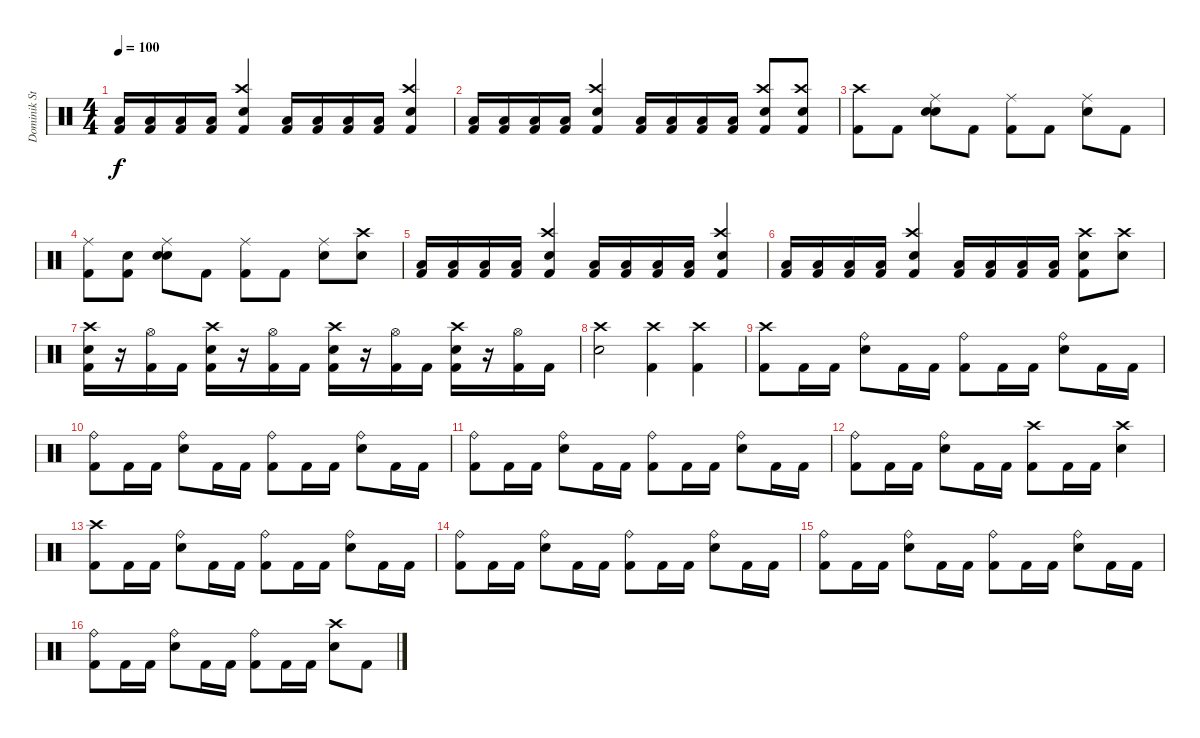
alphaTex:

\track ("Dominik Storch" "Dominik St") {instrument percussion}
\staff {score}
\articulation defaults
\ts (4 4)
\tempo 100
\clef neutral
\ks c
("Low Tom (hit)" "Kick (hit) 2").16{dy f} ("Low Tom (hit)" "Kick (hit) 2").16 ("Low Tom (hit)" "Kick (hit) 2").16 ("Low Tom (hit)" "Kick (hit) 2").16 ("Crash high (hit)" "Snare (hit) 2" "Kick (hit) 2").4 ("Low Tom (hit)" "Kick (hit) 2").16 ("Low Tom (hit)" "Kick (hit) 2").16 ("Low Tom (hit)" "Kick (hit) 2").16 ("Low Tom (hit)" "Kick (hit) 2").16 ("Crash high (hit)" "Snare (hit) 2" "Kick (hit) 2").4 |
("Low Tom (hit)" "Kick (hit) 2").16 ("Low Tom (hit)" "Kick (hit) 2").16 ("Low Tom (hit)" "Kick (hit) 2").16 ("Low Tom (hit)" "Kick (hit) 2").16 ("Crash high (hit)" "Snare (hit) 2" "Kick (hit) 2").4 ("Low Tom (hit)" "Kick (hit) 2").16 ("Low Tom (hit)" "Kick (hit) 2").16 ("Low Tom (hit)" "Kick (hit) 2").16 ("Low Tom (hit)" "Kick (hit) 2").16 ("Crash high (hit)" "Snare (hit) 2" "Kick (hit) 2").8 ("Crash high (hit)" "Snare (hit) 2" "Kick (hit) 2").8 |
("Crash high (hit)" "Kick (hit) 2").8 "Kick (hit) 2".8 ("Ride (middle)" "Snare (hit)" "Snare (hit) 2").8 "Kick (hit) 2".8 ("Ride (middle)" "Kick (hit) 2").8 "Kick (hit) 2".8 ("Ride (middle)" "Snare (hit) 2").8 "Kick (hit) 2".8 |
("Ride (middle)" "Kick (hit) 2").8 ("Snare (hit)" "Kick (hit) 2").8 ("Ride (middle)" "Snare (hit)" "Snare (hit) 2").8 "Kick (hit) 2".8 ("Ride (middle)" "Kick (hit) 2").8 "Kick (hit) 2".8 ("Ride (middle)" "Snare (hit) 2").8 ("Crash high (hit)" "Snare (hit) 2").8 |
("Low Tom (hit)" "Kick (hit) 2").16 ("Low Tom (hit)" "Kick (hit) 2").16 ("Low Tom (hit)" "Kick (hit) 2").16 ("Low Tom (hit)" "Kick (hit) 2").16 ("Crash high (hit)" "Snare (hit) 2" "Kick (hit) 2").4 ("Low Tom (hit)" "Kick (hit) 2").16 ("Low Tom (hit)" "Kick (hit) 2").16 ("Low Tom (hit)" "Kick (hit) 2").16 ("Low Tom (hit)" "Kick (hit) 2").16 ("Crash high (hit)" "Snare (hit) 2" "Kick (hit) 2").4 |
("Low Tom (hit)" "Kick (hit) 2").16 ("Low Tom (hit)" "Kick (hit) 2").16 ("Low Tom (hit)" "Kick (hit) 2").16 ("Low Tom (hit)" "Kick (hit) 2").16 ("Crash high (hit)" "Snare (hit) 2" "Kick (hit) 2").4 ("Low Tom (hit)" "Kick (hit) 2").16 ("Low Tom (hit)" "Kick (hit) 2").16 ("Low Tom (hit)" "Kick (hit) 2").16 ("Low Tom (hit)" "Kick (hit) 2").16 ("Crash high (hit)" "Snare (hit) 2" "Kick (hit) 2").8 ("Crash high (hit)" "Snare (hit) 2").8 |
("Crash high (hit)" "Snare (hit) 2" "Kick (hit) 2").16 r.16 ("Hi-Hat (open)" "Kick (hit) 2").16 "Kick (hit) 2".16 ("Crash high (hit)" "Snare (hit) 2" "Kick (hit) 2").16 r.16 ("Hi-Hat (open)" "Kick (hit) 2").16 "Kick (hit) 2".16 ("Crash high (hit)" "Snare (hit) 2" "Kick (hit) 2").16 r.16 ("Hi-Hat (open)" "Kick (hit) 2").16 "Kick (hit) 2".16 ("Crash high (hit)" "Snare (hit) 2" "Kick (hit) 2").16 r.16 ("Hi-Hat (open)" "Kick (hit) 2").16 "Kick (hit) 2".16 |
("Crash high (hit)" "Snare (hit) 2").2 ("Crash high (hit)" "Kick (hit) 2").4 ("Crash high (hit)" "Kick (hit) 2").4 |
("Crash high (hit)" "Kick (hit) 2").8 "Kick (hit) 2".16 "Kick (hit) 2".16 ("Ride (bell)" "Snare (hit) 2").8 "Kick (hit) 2".16 "Kick (hit) 2".16 ("Ride (bell)" "Kick (hit) 2").8 "Kick (hit) 2".16 "Kick (hit) 2".16 ("Ride (bell)" "Snare (hit) 2").8 "Kick (hit) 2".16 "Kick (hit) 2".16 |
("Ride (bell)" "Kick (hit) 2").8 "Kick (hit) 2".16 "Kick (hit) 2".16 ("Ride (bell)" "Snare (hit) 2").8 "Kick (hit) 2".16 "Kick (hit) 2".16 ("Ride (bell)" "Kick (hit) 2").8 "Kick (hit) 2".16 "Kick (hit) 2".16 ("Ride (bell)" "Snare (hit) 2").8 "Kick (hit) 2".16 "Kick (hit) 2".16 |
("Ride (bell)" "Kick (hit) 2").8 "Kick (hit) 2".16 "Kick (hit) 2".16 ("Ride (bell)" "Snare (hit) 2").8 "Kick (hit) 2".16 "Kick (hit) 2".16 ("Ride (bell)" "Kick (hit) 2").8 "Kick (hit) 2".16 "Kick (hit) 2".16 ("Ride (bell)" "Snare (hit) 2").8 "Kick (hit) 2".16 "Kick (hit) 2".16 |
("Ride (bell)" "Kick (hit) 2").8 "Kick (hit) 2".16 "Kick (hit) 2".16 ("Ride (bell)" "Snare (hit) 2").8 "Kick (hit) 2".16 "Kick (hit) 2".16 ("Crash high (hit)" "Kick (hit) 2").8 "Kick (hit) 2".16 "Kick (hit) 2".16 ("Crash high (hit)" "Snare (hit) 2").4 |
("Crash high (hit)" "Kick (hit) 2").8 "Kick (hit) 2".16 "Kick (hit) 2".16 ("Ride (bell)" "Snare (hit) 2").8 "Kick (hit) 2".16 "Kick (hit) 2".16 ("Ride (bell)" "Kick (hit) 2").8 "Kick (hit) 2".16 "Kick (hit) 2".16 ("Ride (bell)" "Snare (hit) 2").8 "Kick (hit) 2".16 "Kick (hit) 2".16 |
("Ride (bell)" "Kick (hit) 2").8 "Kick (hit) 2".16 "Kick (hit) 2".16 ("Ride (bell)" "Snare (hit) 2").8 "Kick (hit) 2".16 "Kick (hit) 2".16 ("Ride (bell)" "Kick (hit) 2").8 "Kick (hit) 2".16 "Kick (hit) 2".16 ("Ride (bell)" "Snare (hit) 2").8 "Kick (hit) 2".16 "Kick (hit) 2".16 |
("Ride (bell)" "Kick (hit) 2").8 "Kick (hit) 2".16 "Kick (hit) 2".16 ("Ride (bell)" "Snare (hit) 2").8 "Kick (hit) 2".16 "Kick (hit) 2".16 ("Ride (bell)" "Kick (hit) 2").8 "Kick (hit) 2".16 "Kick (hit) 2".16 ("Ride (bell)" "Snare (hit) 2").8 "Kick (hit) 2".16 "Kick (hit) 2".16 |
("Ride (bell)" "Kick (hit) 2").8 "Kick (hit) 2".16 "Kick (hit) 2".16 ("Ride (bell)" "Snare (hit) 2").8 "Kick (hit) 2".16 "Kick (hit) 2".16 ("Ride (bell)" "Kick (hit) 2").8 "Kick (hit) 2".16 "Kick (hit) 2".16 ("Crash high (hit)" "Snare (hit) 2").8 "Kick (hit) 2".8
